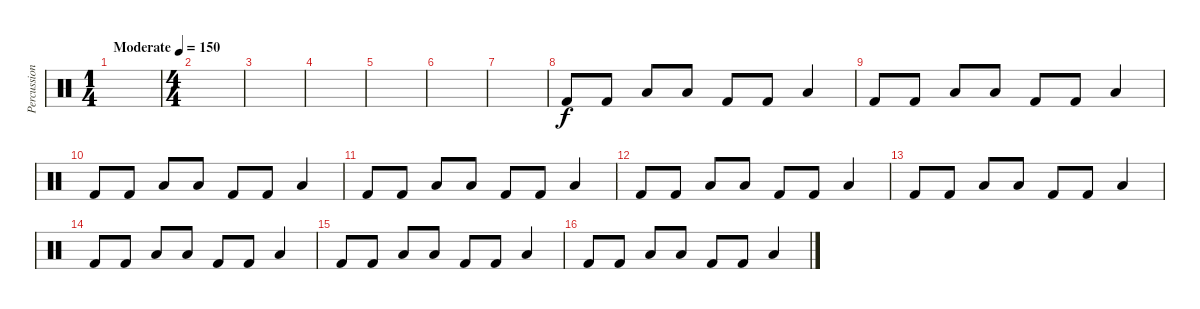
\track ("Percussion" "Percussion") {instrument percussion}
\staff {score}
\articulation defaults
\ts (1 4)
\tempo (150 "Moderate")
\clef neutral
\ks c
|
\ts (4 4)
|
|
|
|
|
|
"Kick (hit) 2".8{volume 16} "Kick (hit) 2".8 "Low Tom (hit)".8 "Low Tom (hit)".8 "Kick (hit) 2".8 "Kick (hit) 2".8 "Low Floor Tom (hit)".4 |
"Kick (hit) 2".8 "Kick (hit) 2".8 "Low Tom (hit)".8 "Low Tom (hit)".8 "Kick (hit) 2".8 "Kick (hit) 2".8 "Low Floor Tom (hit)".4 |
"Kick (hit) 2".8 "Kick (hit) 2".8 "Low Tom (hit)".8 "Low Tom (hit)".8 "Kick (hit) 2".8 "Kick (hit) 2".8 "Low Floor Tom (hit)".4 |
"Kick (hit) 2".8 "Kick (hit) 2".8 "Low Tom (hit)".8 "Low Tom (hit)".8 "Kick (hit) 2".8 "Kick (hit) 2".8 "Low Floor Tom (hit)".4 |
"Kick (hit) 2".8 "Kick (hit) 2".8 "Low Tom (hit)".8 "Low Tom (hit)".8 "Kick (hit) 2".8 "Kick (hit) 2".8 "Low Floor Tom (hit)".4 |
"Kick (hit) 2".8 "Kick (hit) 2".8 "Low Tom (hit)".8 "Low Tom (hit)".8 "Kick (hit) 2".8 "Kick (hit) 2".8 "Low Floor Tom (hit)".4 |
"Kick (hit) 2".8 "Kick (hit) 2".8 "Low Tom (hit)".8 "Low Tom (hit)".8 "Kick (hit) 2".8 "Kick (hit) 2".8 "Low Floor Tom (hit)".4 |
"Kick (hit) 2".8 "Kick (hit) 2".8 "Low Tom (hit)".8 "Low Tom (hit)".8 "Kick (hit) 2".8 "Kick (hit) 2".8 "Low Floor Tom (hit)".4 |
"Kick (hit) 2".8 "Kick (hit) 2".8 "Low Tom (hit)".8 "Low Tom (hit)".8 "Kick (hit) 2".8 "Kick (hit) 2".8 "Low Floor Tom (hit)".4
